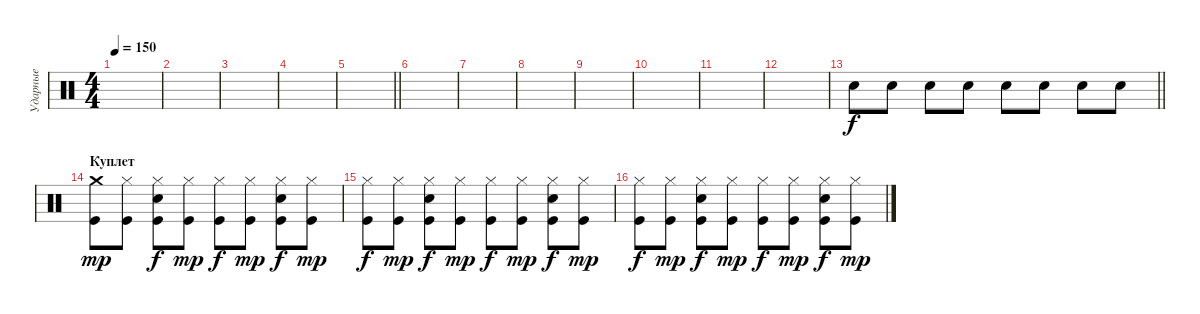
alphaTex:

\track ("Ударные" "Ударные") {instrument percussion}
\staff {score}
\articulation defaults
\ts (4 4)
\tempo 150
\clef neutral
\ks c
|
|
|
|
\barLineRight lightlight
|
\section ("" " ")
|
|
|
|
|
|
|
\barLineRight lightlight "Electric Snare (hit)".8{dy f} "Electric Snare (hit)".8 "Electric Snare (hit)".8 "Electric Snare (hit)".8 "Electric Snare (hit)".8 "Electric Snare (hit)".8 "Electric Snare (hit)".8 "Electric Snare (hit)".8
|
\section ("" "Куплет")
("Crash medium (hit)" "Kick (hit)").8{dy mp} ("Hi-Hat (closed)" "Kick (hit)").8 ("Hi-Hat (closed)" "Electric Snare (hit)" "Kick (hit)").8{dy f} ("Hi-Hat (closed)" "Kick (hit)").8{dy mp} ("Hi-Hat (closed)" "Kick (hit)").8{dy f} ("Hi-Hat (closed)" "Kick (hit)").8{dy mp} ("Hi-Hat (closed)" "Electric Snare (hit)" "Kick (hit)").8{dy f} ("Hi-Hat (closed)" "Kick (hit)").8{dy mp} |
("Hi-Hat (closed)" "Kick (hit)").8{dy f} ("Hi-Hat (closed)" "Kick (hit)").8{dy mp} ("Hi-Hat (closed)" "Electric Snare (hit)" "Kick (hit)").8{dy f} ("Hi-Hat (closed)" "Kick (hit)").8{dy mp} ("Hi-Hat (closed)" "Kick (hit)").8{dy f} ("Hi-Hat (closed)" "Kick (hit)").8{dy mp} ("Hi-Hat (closed)" "Electric Snare (hit)" "Kick (hit)").8{dy f} ("Hi-Hat (closed)" "Kick (hit)").8{dy mp} |
("Hi-Hat (closed)" "Kick (hit)").8{dy f} ("Hi-Hat (closed)" "Kick (hit)").8{dy mp} ("Hi-Hat (closed)" "Electric Snare (hit)" "Kick (hit)").8{dy f} ("Hi-Hat (closed)" "Kick (hit)").8{dy mp} ("Hi-Hat (closed)" "Kick (hit)").8{dy f} ("Hi-Hat (closed)" "Kick (hit)").8{dy mp} ("Hi-Hat (closed)" "Electric Snare (hit)" "Kick (hit)").8{dy f} ("Hi-Hat (closed)" "Kick (hit)").8{dy mp}
